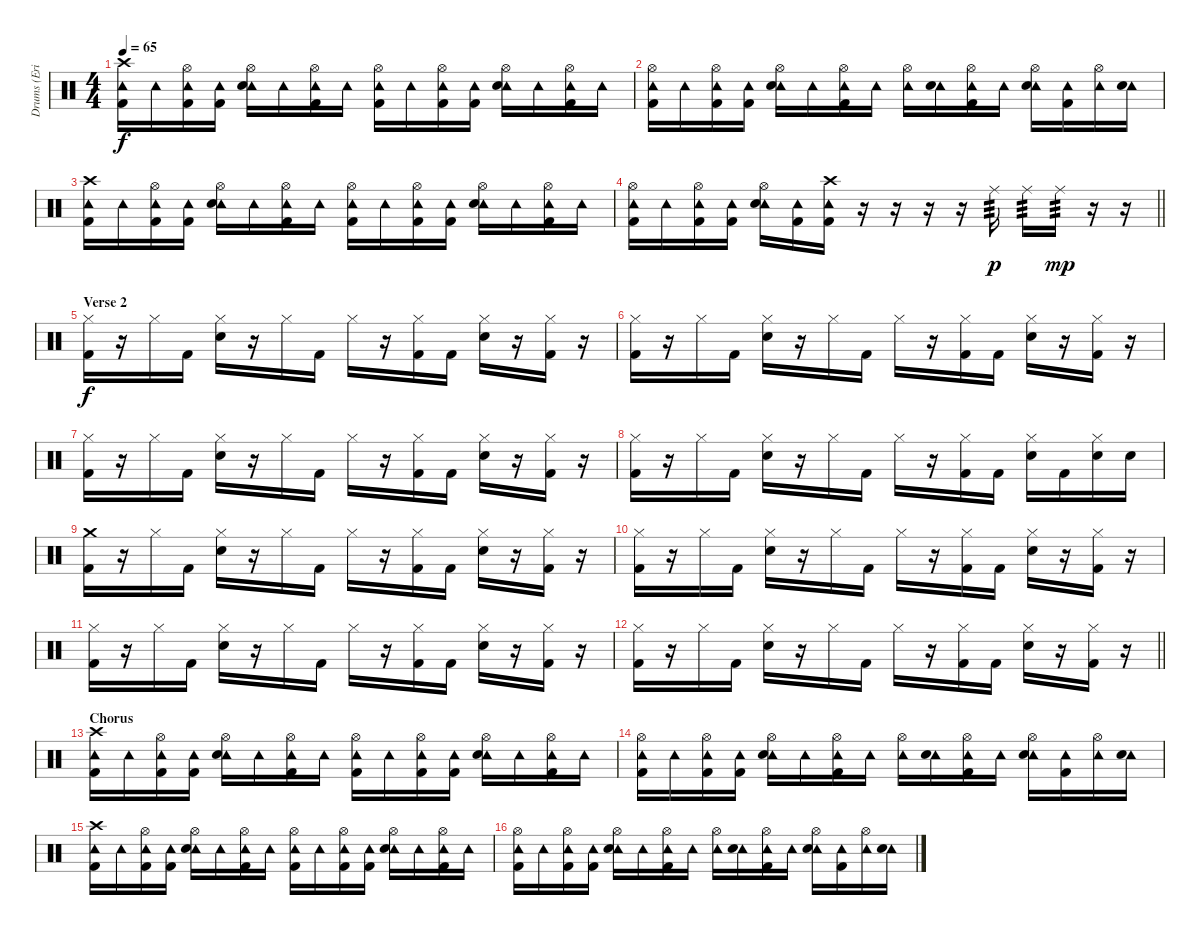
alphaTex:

\track ("Drums (Eric Kretz)" "Drums (Eri") {instrument percussion}
\staff {score}
\articulation defaults
\ts (4 4)
\tempo 65
\clef neutral
\ks c
("Crash high (hit)" "Tambourine (hit)" "Kick (hit) 2").16{dy f} "Tambourine (hit)".16 ("Hi-Hat (open)" "Tambourine (hit)" "Kick (hit) 2").16 ("Tambourine (hit)" "Kick (hit) 2").16 ("Hi-Hat (open)" "Tambourine (hit)" "Electric Snare (hit)").16 "Tambourine (hit)".16 ("Hi-Hat (open)" "Tambourine (hit)" "Kick (hit) 2").16 "Tambourine (hit)".16 ("Hi-Hat (open)" "Tambourine (hit)" "Kick (hit) 2").16 "Tambourine (hit)".16 ("Hi-Hat (open)" "Tambourine (hit)" "Kick (hit) 2").16 ("Tambourine (hit)" "Kick (hit) 2").16 ("Hi-Hat (open)" "Tambourine (hit)" "Electric Snare (hit)").16 "Tambourine (hit)".16 ("Hi-Hat (open)" "Tambourine (hit)" "Kick (hit) 2").16 "Tambourine (hit)".16 |
("Hi-Hat (open)" "Tambourine (hit)" "Kick (hit) 2").16 "Tambourine (hit)".16 ("Hi-Hat (open)" "Tambourine (hit)" "Kick (hit) 2").16 ("Tambourine (hit)" "Kick (hit) 2").16 ("Hi-Hat (open)" "Tambourine (hit)" "Electric Snare (hit)").16 "Tambourine (hit)".16 ("Hi-Hat (open)" "Tambourine (hit)" "Kick (hit) 2").16 "Tambourine (hit)".16 ("Hi-Hat (open)" "Tambourine (hit)").16 ("Tambourine (hit)" "Electric Snare (hit)").16 ("Hi-Hat (open)" "Tambourine (hit)" "Kick (hit) 2").16 "Tambourine (hit)".16 ("Hi-Hat (open)" "Tambourine (hit)" "Electric Snare (hit)").16 ("Tambourine (hit)" "Kick (hit) 2").16 ("Hi-Hat (open)" "Tambourine (hit)").16 ("Tambourine (hit)" "Electric Snare (hit)").16 |
("Crash high (hit)" "Tambourine (hit)" "Kick (hit) 2").16 "Tambourine (hit)".16 ("Hi-Hat (open)" "Tambourine (hit)" "Kick (hit) 2").16 ("Tambourine (hit)" "Kick (hit) 2").16 ("Hi-Hat (open)" "Tambourine (hit)" "Electric Snare (hit)").16 "Tambourine (hit)".16 ("Hi-Hat (open)" "Tambourine (hit)" "Kick (hit) 2").16 "Tambourine (hit)".16 ("Hi-Hat (open)" "Tambourine (hit)" "Kick (hit) 2").16 "Tambourine (hit)".16 ("Hi-Hat (open)" "Tambourine (hit)" "Kick (hit) 2").16 ("Tambourine (hit)" "Kick (hit) 2").16 ("Hi-Hat (open)" "Tambourine (hit)" "Electric Snare (hit)").16 "Tambourine (hit)".16 ("Hi-Hat (open)" "Tambourine (hit)" "Kick (hit) 2").16 "Tambourine (hit)".16 |
\barLineRight lightlight
("Hi-Hat (open)" "Tambourine (hit)" "Kick (hit) 2").16 "Tambourine (hit)".16 ("Hi-Hat (open)" "Tambourine (hit)" "Kick (hit) 2").16 ("Tambourine (hit)" "Kick (hit) 2").16 ("Hi-Hat (open)" "Tambourine (hit)" "Electric Snare (hit)").16 ("Tambourine (hit)" "Kick (hit) 2").16 ("Crash high (hit)" "Tambourine (hit)" "Kick (hit) 2").16 r.16 r.16 r.16 r.16 "Ride (middle)".16{tp 3 dy p} "Ride (middle)".16{tp 3} "Ride (middle)".16{tp 3 dy mp} r.16 r.16 |
\section ("" "Verse 2")
("Hi-Hat (closed)" "Kick (hit) 2").16{dy f} r.16 "Hi-Hat (closed)".16 "Kick (hit) 2".16 ("Hi-Hat (closed)" "Electric Snare (hit)").16 r.16 "Hi-Hat (closed)".16 "Kick (hit) 2".16 "Hi-Hat (closed)".16 r.16 ("Hi-Hat (closed)" "Kick (hit) 2").16 "Kick (hit) 2".16 ("Hi-Hat (closed)" "Electric Snare (hit)").16 r.16 ("Hi-Hat (closed)" "Kick (hit) 2").16 r.16 |
("Hi-Hat (closed)" "Kick (hit) 2").16 r.16 "Hi-Hat (closed)".16 "Kick (hit) 2".16 ("Hi-Hat (closed)" "Electric Snare (hit)").16 r.16 "Hi-Hat (closed)".16 "Kick (hit) 2".16 "Hi-Hat (closed)".16 r.16 ("Hi-Hat (closed)" "Kick (hit) 2").16 "Kick (hit) 2".16 ("Hi-Hat (closed)" "Electric Snare (hit)").16 r.16 ("Hi-Hat (closed)" "Kick (hit) 2").16 r.16 |
("Hi-Hat (closed)" "Kick (hit) 2").16 r.16 "Hi-Hat (closed)".16 "Kick (hit) 2".16 ("Hi-Hat (closed)" "Electric Snare (hit)").16 r.16 "Hi-Hat (closed)".16 "Kick (hit) 2".16 "Hi-Hat (closed)".16 r.16 ("Hi-Hat (closed)" "Kick (hit) 2").16 "Kick (hit) 2".16 ("Hi-Hat (closed)" "Electric Snare (hit)").16 r.16 ("Hi-Hat (closed)" "Kick (hit) 2").16 r.16 |
("Hi-Hat (closed)" "Kick (hit) 2").16 r.16 "Hi-Hat (closed)".16 "Kick (hit) 2".16 ("Hi-Hat (closed)" "Electric Snare (hit)").16 r.16 "Hi-Hat (closed)".16 "Kick (hit) 2".16 "Hi-Hat (closed)".16 r.16 ("Hi-Hat (closed)" "Kick (hit) 2").16 "Kick (hit) 2".16 ("Hi-Hat (closed)" "Electric Snare (hit)").16 "Kick (hit) 2".16 ("Hi-Hat (closed)" "Electric Snare (hit)").16 "Electric Snare (hit)".16 |
("Crash medium (hit)" "Kick (hit) 2").16 r.16 "Hi-Hat (closed)".16 "Kick (hit) 2".16 ("Hi-Hat (closed)" "Electric Snare (hit)").16 r.16 "Hi-Hat (closed)".16 "Kick (hit) 2".16 "Hi-Hat (closed)".16 r.16 ("Hi-Hat (closed)" "Kick (hit) 2").16 "Kick (hit) 2".16 ("Hi-Hat (closed)" "Electric Snare (hit)").16 r.16 ("Hi-Hat (closed)" "Kick (hit) 2").16 r.16 |
("Hi-Hat (closed)" "Kick (hit) 2").16 r.16 "Hi-Hat (closed)".16 "Kick (hit) 2".16 ("Hi-Hat (closed)" "Electric Snare (hit)").16 r.16 "Hi-Hat (closed)".16 "Kick (hit) 2".16 "Hi-Hat (closed)".16 r.16 ("Hi-Hat (closed)" "Kick (hit) 2").16 "Kick (hit) 2".16 ("Hi-Hat (closed)" "Electric Snare (hit)").16 r.16 ("Hi-Hat (closed)" "Kick (hit) 2").16 r.16 |
("Hi-Hat (closed)" "Kick (hit) 2").16 r.16 "Hi-Hat (closed)".16 "Kick (hit) 2".16 ("Hi-Hat (closed)" "Electric Snare (hit)").16 r.16 "Hi-Hat (closed)".16 "Kick (hit) 2".16 "Hi-Hat (closed)".16 r.16 ("Hi-Hat (closed)" "Kick (hit) 2").16 "Kick (hit) 2".16 ("Hi-Hat (closed)" "Electric Snare (hit)").16 r.16 ("Hi-Hat (closed)" "Kick (hit) 2").16 r.16 |
\barLineRight lightlight
("Hi-Hat (closed)" "Kick (hit) 2").16 r.16 "Hi-Hat (closed)".16 "Kick (hit) 2".16 ("Hi-Hat (closed)" "Electric Snare (hit)").16 r.16 "Hi-Hat (closed)".16 "Kick (hit) 2".16 "Hi-Hat (closed)".16 r.16 ("Hi-Hat (closed)" "Kick (hit) 2").16 "Kick (hit) 2".16 ("Hi-Hat (closed)" "Electric Snare (hit)").16 r.16 ("Hi-Hat (closed)" "Kick (hit) 2").16 r.16 |
\section ("" "Chorus")
("Crash high (hit)" "Tambourine (hit)" "Kick (hit) 2").16 "Tambourine (hit)".16 ("Hi-Hat (open)" "Tambourine (hit)" "Kick (hit) 2").16 ("Tambourine (hit)" "Kick (hit) 2").16 ("Hi-Hat (open)" "Tambourine (hit)" "Electric Snare (hit)").16 "Tambourine (hit)".16 ("Hi-Hat (open)" "Tambourine (hit)" "Kick (hit) 2").16 "Tambourine (hit)".16 ("Hi-Hat (open)" "Tambourine (hit)" "Kick (hit) 2").16 "Tambourine (hit)".16 ("Hi-Hat (open)" "Tambourine (hit)" "Kick (hit) 2").16 ("Tambourine (hit)" "Kick (hit) 2").16 ("Hi-Hat (open)" "Tambourine (hit)" "Electric Snare (hit)").16 "Tambourine (hit)".16 ("Hi-Hat (open)" "Tambourine (hit)" "Kick (hit) 2").16 "Tambourine (hit)".16 |
("Hi-Hat (open)" "Tambourine (hit)" "Kick (hit) 2").16 "Tambourine (hit)".16 ("Hi-Hat (open)" "Tambourine (hit)" "Kick (hit) 2").16 ("Tambourine (hit)" "Kick (hit) 2").16 ("Hi-Hat (open)" "Tambourine (hit)" "Electric Snare (hit)").16 "Tambourine (hit)".16 ("Hi-Hat (open)" "Tambourine (hit)" "Kick (hit) 2").16 "Tambourine (hit)".16 ("Hi-Hat (open)" "Tambourine (hit)").16 ("Tambourine (hit)" "Electric Snare (hit)").16 ("Hi-Hat (open)" "Tambourine (hit)" "Kick (hit) 2").16 "Tambourine (hit)".16 ("Hi-Hat (open)" "Tambourine (hit)" "Electric Snare (hit)").16 ("Tambourine (hit)" "Kick (hit) 2").16 ("Hi-Hat (open)" "Tambourine (hit)").16 ("Tambourine (hit)" "Electric Snare (hit)").16 |
("Crash high (hit)" "Tambourine (hit)" "Kick (hit) 2").16 "Tambourine (hit)".16 ("Hi-Hat (open)" "Tambourine (hit)" "Kick (hit) 2").16 ("Tambourine (hit)" "Kick (hit) 2").16 ("Hi-Hat (open)" "Tambourine (hit)" "Electric Snare (hit)").16 "Tambourine (hit)".16 ("Hi-Hat (open)" "Tambourine (hit)" "Kick (hit) 2").16 "Tambourine (hit)".16 ("Hi-Hat (open)" "Tambourine (hit)" "Kick (hit) 2").16 "Tambourine (hit)".16 ("Hi-Hat (open)" "Tambourine (hit)" "Kick (hit) 2").16 ("Tambourine (hit)" "Kick (hit) 2").16 ("Hi-Hat (open)" "Tambourine (hit)" "Electric Snare (hit)").16 "Tambourine (hit)".16 ("Hi-Hat (open)" "Tambourine (hit)" "Kick (hit) 2").16 "Tambourine (hit)".16 |
("Hi-Hat (open)" "Tambourine (hit)" "Kick (hit) 2").16 "Tambourine (hit)".16 ("Hi-Hat (open)" "Tambourine (hit)" "Kick (hit) 2").16 ("Tambourine (hit)" "Kick (hit) 2").16 ("Hi-Hat (open)" "Tambourine (hit)" "Electric Snare (hit)").16 "Tambourine (hit)".16 ("Hi-Hat (open)" "Tambourine (hit)" "Kick (hit) 2").16 "Tambourine (hit)".16 ("Hi-Hat (open)" "Tambourine (hit)").16 ("Tambourine (hit)" "Electric Snare (hit)").16 ("Hi-Hat (open)" "Tambourine (hit)" "Kick (hit) 2").16 "Tambourine (hit)".16 ("Hi-Hat (open)" "Tambourine (hit)" "Electric Snare (hit)").16 ("Tambourine (hit)" "Kick (hit) 2").16 ("Hi-Hat (open)" "Tambourine (hit)").16 ("Tambourine (hit)" "Electric Snare (hit)").16
